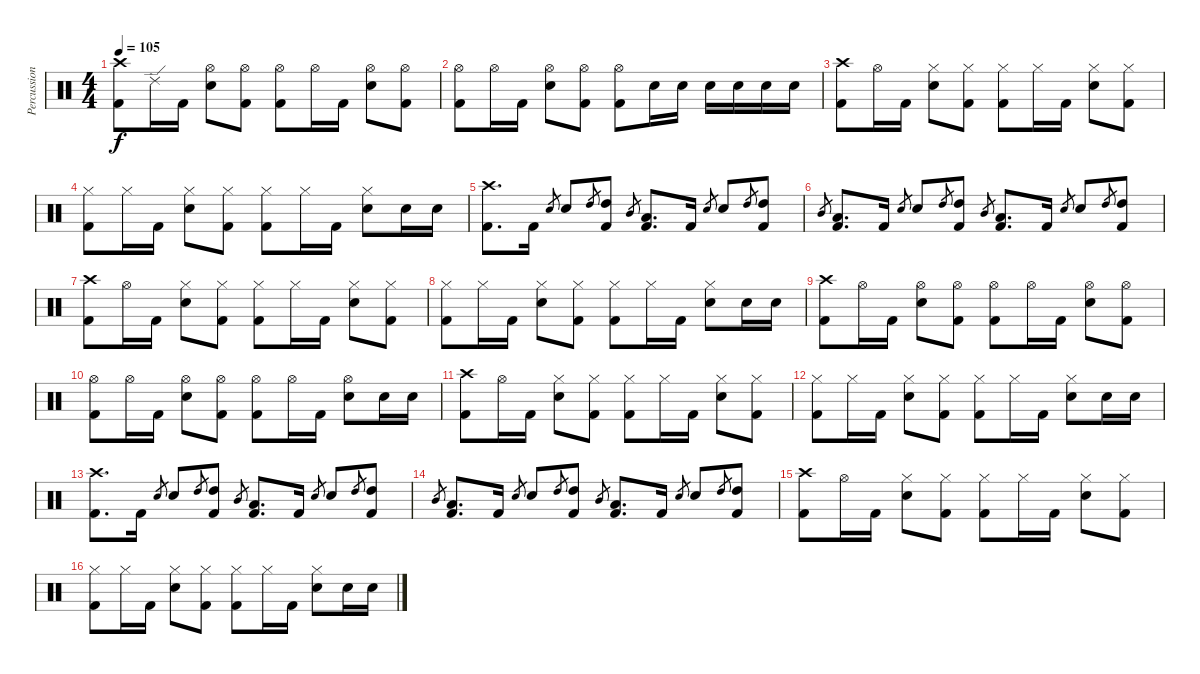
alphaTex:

\track ("Percussion" "Percussion") {instrument percussion}
\staff {score}
\articulation defaults
\ts (4 4)
\tempo 105
\clef neutral
\ks c
("Crash high (hit)" "Kick (hit) 2").8{dy f} "Ride (edge) 2".16 "Kick (hit) 2".16 ("Hi-Hat (open)" "Electric Snare (hit)").8 ("Hi-Hat (open)" "Kick (hit) 2").8 ("Hi-Hat (open)" "Kick (hit) 2").8 "Hi-Hat (open)".16 "Kick (hit) 2".16 ("Hi-Hat (open)" "Electric Snare (hit)").8 ("Hi-Hat (open)" "Kick (hit) 2").8 |
("Hi-Hat (open)" "Kick (hit) 2").8 "Hi-Hat (open)".16 "Kick (hit) 2".16 ("Hi-Hat (open)" "Electric Snare (hit)").8 ("Hi-Hat (open)" "Kick (hit) 2").8 ("Hi-Hat (open)" "Kick (hit) 2").8 "Electric Snare (hit)".16 "Electric Snare (hit)".16 "Electric Snare (hit)".16 "Electric Snare (hit)".16 "Electric Snare (hit)".16 "Electric Snare (hit)".16 |
("Crash high (hit)" "Kick (hit) 2").8 "Hi-Hat (open)".16 "Kick (hit) 2".16 ("Hi-Hat (closed)" "Electric Snare (hit)").8 ("Hi-Hat (closed)" "Kick (hit) 2").8 ("Hi-Hat (closed)" "Kick (hit) 2").8 "Hi-Hat (closed)".16 "Kick (hit) 2".16 ("Hi-Hat (closed)" "Electric Snare (hit)").8 ("Hi-Hat (closed)" "Kick (hit) 2").8 |
("Hi-Hat (closed)" "Kick (hit) 2").8 "Hi-Hat (closed)".16 "Kick (hit) 2".16 ("Hi-Hat (closed)" "Electric Snare (hit)").8 ("Hi-Hat (closed)" "Kick (hit) 2").8 ("Hi-Hat (closed)" "Kick (hit) 2").8 "Hi-Hat (closed)".16 "Kick (hit) 2".16 ("Hi-Hat (closed)" "Electric Snare (hit)").8 "Electric Snare (hit)".16 "Electric Snare (hit)".16 |
("Crash high (hit)" "Kick (hit) 2").8{d} "Kick (hit) 2".16 "Electric Snare (hit)".8{gr} "Electric Snare (hit)".8 "High Tom (hit)".8{gr} ("High Tom (hit)" "Kick (hit) 2").8 "Mid Tom (hit)".8{gr} ("Low Tom (hit)" "Kick (hit) 2").8{d} "Kick (hit) 2".16 "Electric Snare (hit)".8{gr} "Electric Snare (hit)".8 "High Tom (hit)".8{gr} ("High Tom (hit)" "Kick (hit) 2").8 |
"Mid Tom (hit)".8{gr} ("Low Tom (hit)" "Kick (hit) 2").8{d} "Kick (hit) 2".16 "Electric Snare (hit)".8{gr} "Electric Snare (hit)".8 "High Tom (hit)".8{gr} ("High Tom (hit)" "Kick (hit) 2").8 "Mid Tom (hit)".8{gr} ("Low Tom (hit)" "Kick (hit) 2").8{d} "Kick (hit) 2".16 "Electric Snare (hit)".8{gr} "Electric Snare (hit)".8 "High Tom (hit)".8{gr} ("High Tom (hit)" "Kick (hit) 2").8 |
("Crash high (hit)" "Kick (hit) 2").8 "Hi-Hat (open)".16 "Kick (hit) 2".16 ("Hi-Hat (closed)" "Electric Snare (hit)").8 ("Hi-Hat (closed)" "Kick (hit) 2").8 ("Hi-Hat (closed)" "Kick (hit) 2").8 "Hi-Hat (closed)".16 "Kick (hit) 2".16 ("Hi-Hat (closed)" "Electric Snare (hit)").8 ("Hi-Hat (closed)" "Kick (hit) 2").8 |
("Hi-Hat (closed)" "Kick (hit) 2").8 "Hi-Hat (closed)".16 "Kick (hit) 2".16 ("Hi-Hat (closed)" "Electric Snare (hit)").8 ("Hi-Hat (closed)" "Kick (hit) 2").8 ("Hi-Hat (closed)" "Kick (hit) 2").8 "Hi-Hat (closed)".16 "Kick (hit) 2".16 ("Hi-Hat (closed)" "Electric Snare (hit)").8 "Electric Snare (hit)".16 "Electric Snare (hit)".16 |
("Crash high (hit)" "Kick (hit) 2").8 "Hi-Hat (open)".16 "Kick (hit) 2".16 ("Hi-Hat (open)" "Electric Snare (hit)").8 ("Hi-Hat (open)" "Kick (hit) 2").8 ("Hi-Hat (open)" "Kick (hit) 2").8 "Hi-Hat (open)".16 "Kick (hit) 2".16 ("Hi-Hat (open)" "Electric Snare (hit)").8 ("Hi-Hat (open)" "Kick (hit) 2").8 |
("Hi-Hat (open)" "Kick (hit) 2").8 "Hi-Hat (open)".16 "Kick (hit) 2".16 ("Hi-Hat (open)" "Electric Snare (hit)").8 ("Hi-Hat (open)" "Kick (hit) 2").8 ("Hi-Hat (open)" "Kick (hit) 2").8 "Hi-Hat (open)".16 "Kick (hit) 2".16 ("Hi-Hat (open)" "Electric Snare (hit)").8 "Electric Snare (hit)".16 "Electric Snare (hit)".16 |
("Crash high (hit)" "Kick (hit) 2").8 "Hi-Hat (open)".16 "Kick (hit) 2".16 ("Hi-Hat (closed)" "Electric Snare (hit)").8 ("Hi-Hat (closed)" "Kick (hit) 2").8 ("Hi-Hat (closed)" "Kick (hit) 2").8 "Hi-Hat (closed)".16 "Kick (hit) 2".16 ("Hi-Hat (closed)" "Electric Snare (hit)").8 ("Hi-Hat (closed)" "Kick (hit) 2").8 |
("Hi-Hat (closed)" "Kick (hit) 2").8 "Hi-Hat (closed)".16 "Kick (hit) 2".16 ("Hi-Hat (closed)" "Electric Snare (hit)").8 ("Hi-Hat (closed)" "Kick (hit) 2").8 ("Hi-Hat (closed)" "Kick (hit) 2").8 "Hi-Hat (closed)".16 "Kick (hit) 2".16 ("Hi-Hat (closed)" "Electric Snare (hit)").8 "Electric Snare (hit)".16 "Electric Snare (hit)".16 |
("Crash high (hit)" "Kick (hit) 2").8{d} "Kick (hit) 2".16 "Electric Snare (hit)".8{gr} "Electric Snare (hit)".8 "High Tom (hit)".8{gr} ("High Tom (hit)" "Kick (hit) 2").8 "Mid Tom (hit)".8{gr} ("Low Tom (hit)" "Kick (hit) 2").8{d} "Kick (hit) 2".16 "Electric Snare (hit)".8{gr} "Electric Snare (hit)".8 "High Tom (hit)".8{gr} ("High Tom (hit)" "Kick (hit) 2").8 |
"Mid Tom (hit)".8{gr} ("Low Tom (hit)" "Kick (hit) 2").8{d} "Kick (hit) 2".16 "Electric Snare (hit)".8{gr} "Electric Snare (hit)".8 "High Tom (hit)".8{gr} ("High Tom (hit)" "Kick (hit) 2").8 "Mid Tom (hit)".8{gr} ("Low Tom (hit)" "Kick (hit) 2").8{d} "Kick (hit) 2".16 "Electric Snare (hit)".8{gr} "Electric Snare (hit)".8 "High Tom (hit)".8{gr} ("High Tom (hit)" "Kick (hit) 2").8 |
("Crash high (hit)" "Kick (hit) 2").8 "Hi-Hat (open)".16 "Kick (hit) 2".16 ("Hi-Hat (closed)" "Electric Snare (hit)").8 ("Hi-Hat (closed)" "Kick (hit) 2").8 ("Hi-Hat (closed)" "Kick (hit) 2").8 "Hi-Hat (closed)".16 "Kick (hit) 2".16 ("Hi-Hat (closed)" "Electric Snare (hit)").8 ("Hi-Hat (closed)" "Kick (hit) 2").8 |
("Hi-Hat (closed)" "Kick (hit) 2").8 "Hi-Hat (closed)".16 "Kick (hit) 2".16 ("Hi-Hat (closed)" "Electric Snare (hit)").8 ("Hi-Hat (closed)" "Kick (hit) 2").8 ("Hi-Hat (closed)" "Kick (hit) 2").8 "Hi-Hat (closed)".16 "Kick (hit) 2".16 ("Hi-Hat (closed)" "Electric Snare (hit)").8 "Electric Snare (hit)".16 "Electric Snare (hit)".16
